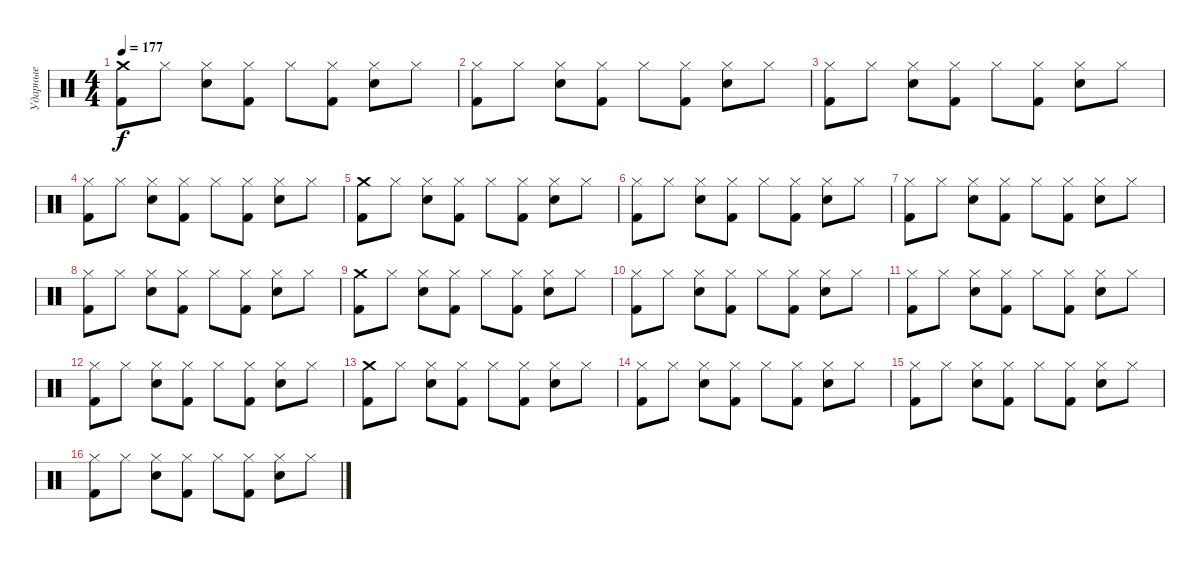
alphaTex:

\track ("Ударные" "Ударные") {instrument percussion}
\staff {score}
\articulation defaults
\ts (4 4)
\tempo 177
\clef neutral
\ks c
("Crash medium (hit)" "Kick (hit) 2").8{dy f} "Hi-Hat (closed)".8 ("Hi-Hat (closed)" "Snare (hit) 2").8 ("Hi-Hat (closed)" "Kick (hit) 2").8 "Hi-Hat (closed)".8 ("Hi-Hat (closed)" "Kick (hit) 2").8 ("Hi-Hat (closed)" "Snare (hit) 2").8 "Hi-Hat (closed)".8 |
("Hi-Hat (closed)" "Kick (hit) 2").8 "Hi-Hat (closed)".8 ("Hi-Hat (closed)" "Snare (hit) 2").8 ("Hi-Hat (closed)" "Kick (hit) 2").8 "Hi-Hat (closed)".8 ("Hi-Hat (closed)" "Kick (hit) 2").8 ("Hi-Hat (closed)" "Snare (hit) 2").8 "Hi-Hat (closed)".8 |
("Hi-Hat (closed)" "Kick (hit) 2").8 "Hi-Hat (closed)".8 ("Hi-Hat (closed)" "Snare (hit) 2").8 ("Hi-Hat (closed)" "Kick (hit) 2").8 "Hi-Hat (closed)".8 ("Hi-Hat (closed)" "Kick (hit) 2").8 ("Hi-Hat (closed)" "Snare (hit) 2").8 "Hi-Hat (closed)".8 |
("Hi-Hat (closed)" "Kick (hit) 2").8 "Hi-Hat (closed)".8 ("Hi-Hat (closed)" "Snare (hit) 2").8 ("Hi-Hat (closed)" "Kick (hit) 2").8 "Hi-Hat (closed)".8 ("Hi-Hat (closed)" "Kick (hit) 2").8 ("Hi-Hat (closed)" "Snare (hit) 2").8 "Hi-Hat (closed)".8 |
("Crash medium (hit)" "Kick (hit) 2").8 "Hi-Hat (closed)".8 ("Hi-Hat (closed)" "Snare (hit) 2").8 ("Hi-Hat (closed)" "Kick (hit) 2").8 "Hi-Hat (closed)".8 ("Hi-Hat (closed)" "Kick (hit) 2").8 ("Hi-Hat (closed)" "Snare (hit) 2").8 "Hi-Hat (closed)".8 |
("Hi-Hat (closed)" "Kick (hit) 2").8 "Hi-Hat (closed)".8 ("Hi-Hat (closed)" "Snare (hit) 2").8 ("Hi-Hat (closed)" "Kick (hit) 2").8 "Hi-Hat (closed)".8 ("Hi-Hat (closed)" "Kick (hit) 2").8 ("Hi-Hat (closed)" "Snare (hit) 2").8 "Hi-Hat (closed)".8 |
("Hi-Hat (closed)" "Kick (hit) 2").8 "Hi-Hat (closed)".8 ("Hi-Hat (closed)" "Snare (hit) 2").8 ("Hi-Hat (closed)" "Kick (hit) 2").8 "Hi-Hat (closed)".8 ("Hi-Hat (closed)" "Kick (hit) 2").8 ("Hi-Hat (closed)" "Snare (hit) 2").8 "Hi-Hat (closed)".8 |
("Hi-Hat (closed)" "Kick (hit) 2").8 "Hi-Hat (closed)".8 ("Hi-Hat (closed)" "Snare (hit) 2").8 ("Hi-Hat (closed)" "Kick (hit) 2").8 "Hi-Hat (closed)".8 ("Hi-Hat (closed)" "Kick (hit) 2").8 ("Hi-Hat (closed)" "Snare (hit) 2").8 "Hi-Hat (closed)".8 |
("Crash medium (hit)" "Kick (hit) 2").8 "Hi-Hat (closed)".8 ("Hi-Hat (closed)" "Snare (hit) 2").8 ("Hi-Hat (closed)" "Kick (hit) 2").8 "Hi-Hat (closed)".8 ("Hi-Hat (closed)" "Kick (hit) 2").8 ("Hi-Hat (closed)" "Snare (hit) 2").8 "Hi-Hat (closed)".8 |
("Hi-Hat (closed)" "Kick (hit) 2").8 "Hi-Hat (closed)".8 ("Hi-Hat (closed)" "Snare (hit) 2").8 ("Hi-Hat (closed)" "Kick (hit) 2").8 "Hi-Hat (closed)".8 ("Hi-Hat (closed)" "Kick (hit) 2").8 ("Hi-Hat (closed)" "Snare (hit) 2").8 "Hi-Hat (closed)".8 |
("Hi-Hat (closed)" "Kick (hit) 2").8 "Hi-Hat (closed)".8 ("Hi-Hat (closed)" "Snare (hit) 2").8 ("Hi-Hat (closed)" "Kick (hit) 2").8 "Hi-Hat (closed)".8 ("Hi-Hat (closed)" "Kick (hit) 2").8 ("Hi-Hat (closed)" "Snare (hit) 2").8 "Hi-Hat (closed)".8 |
("Hi-Hat (closed)" "Kick (hit) 2").8 "Hi-Hat (closed)".8 ("Hi-Hat (closed)" "Snare (hit) 2").8 ("Hi-Hat (closed)" "Kick (hit) 2").8 "Hi-Hat (closed)".8 ("Hi-Hat (closed)" "Kick (hit) 2").8 ("Hi-Hat (closed)" "Snare (hit) 2").8 "Hi-Hat (closed)".8 |
("Crash medium (hit)" "Kick (hit) 2").8 "Hi-Hat (closed)".8 ("Hi-Hat (closed)" "Snare (hit) 2").8 ("Hi-Hat (closed)" "Kick (hit) 2").8 "Hi-Hat (closed)".8 ("Hi-Hat (closed)" "Kick (hit) 2").8 ("Hi-Hat (closed)" "Snare (hit) 2").8 "Hi-Hat (closed)".8 |
("Hi-Hat (closed)" "Kick (hit) 2").8 "Hi-Hat (closed)".8 ("Hi-Hat (closed)" "Snare (hit) 2").8 ("Hi-Hat (closed)" "Kick (hit) 2").8 "Hi-Hat (closed)".8 ("Hi-Hat (closed)" "Kick (hit) 2").8 ("Hi-Hat (closed)" "Snare (hit) 2").8 "Hi-Hat (closed)".8 |
("Hi-Hat (closed)" "Kick (hit) 2").8 "Hi-Hat (closed)".8 ("Hi-Hat (closed)" "Snare (hit) 2").8 ("Hi-Hat (closed)" "Kick (hit) 2").8 "Hi-Hat (closed)".8 ("Hi-Hat (closed)" "Kick (hit) 2").8 ("Hi-Hat (closed)" "Snare (hit) 2").8 "Hi-Hat (closed)".8 |
("Hi-Hat (closed)" "Kick (hit) 2").8 "Hi-Hat (closed)".8 ("Hi-Hat (closed)" "Snare (hit) 2").8 ("Hi-Hat (closed)" "Kick (hit) 2").8 "Hi-Hat (closed)".8 ("Hi-Hat (closed)" "Kick (hit) 2").8 ("Hi-Hat (closed)" "Snare (hit) 2").8 "Hi-Hat (closed)".8
